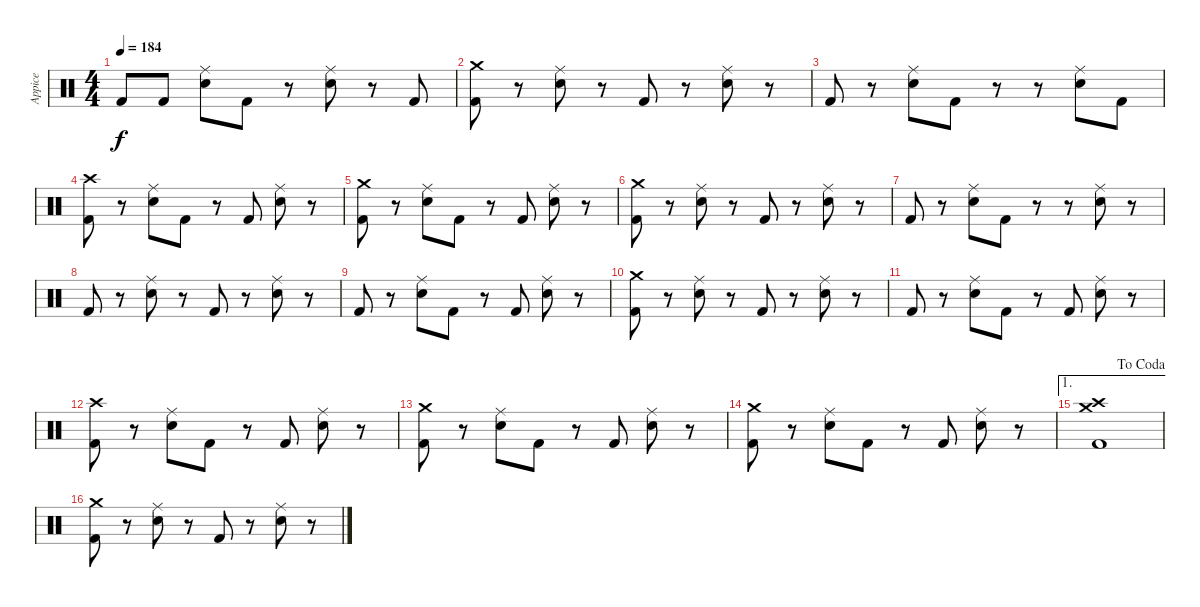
\track ("Appice" "Appice") {instrument percussion}
\staff {score}
\articulation defaults
\ts (4 4)
\tempo 184
\clef neutral
\ks c "Kick (hit) 2".8{dy f} "Kick (hit) 2".8
("Ride (middle)" "Snare (hit) 2").8 "Kick (hit) 2".8 r.8 ("Ride (middle)" "Snare (hit) 2").8 r.8 "Kick (hit) 2".8 |
("Crash medium (hit)" "Kick (hit) 2").8 r.8 ("Ride (middle)" "Snare (hit) 2").8 r.8 "Kick (hit) 2".8 r.8 ("Ride (middle)" "Snare (hit) 2").8 r.8 |
"Kick (hit) 2".8 r.8 ("Ride (middle)" "Snare (hit) 2").8 "Kick (hit) 2".8 r.8 r.8 ("Ride (middle)" "Snare (hit) 2").8 "Kick (hit) 2".8 |
("Crash high (hit)" "Kick (hit) 2").8 r.8 ("Ride (middle)" "Snare (hit) 2").8 "Kick (hit) 2".8 r.8 "Kick (hit) 2".8 ("Ride (middle)" "Snare (hit) 2").8 r.8 |
("Crash medium (hit)" "Kick (hit) 2").8 r.8 ("Ride (middle)" "Snare (hit) 2").8 "Kick (hit) 2".8 r.8 "Kick (hit) 2".8 ("Ride (middle)" "Snare (hit) 2").8 r.8 |
("Crash medium (hit)" "Kick (hit) 2").8 r.8 ("Ride (middle)" "Snare (hit) 2").8 r.8 "Kick (hit) 2".8 r.8 ("Ride (middle)" "Snare (hit) 2").8 r.8 |
"Kick (hit) 2".8 r.8 ("Ride (middle)" "Snare (hit) 2").8 "Kick (hit) 2".8 r.8 r.8 ("Ride (middle)" "Snare (hit) 2").8 r.8 |
"Kick (hit) 2".8 r.8 ("Ride (middle)" "Snare (hit) 2").8 r.8 "Kick (hit) 2".8 r.8 ("Ride (middle)" "Snare (hit) 2").8 r.8 |
"Kick (hit) 2".8 r.8 ("Ride (middle)" "Snare (hit) 2").8 "Kick (hit) 2".8 r.8 "Kick (hit) 2".8 ("Ride (middle)" "Snare (hit) 2").8 r.8 |
("Crash medium (hit)" "Kick (hit) 2").8 r.8 ("Ride (middle)" "Snare (hit) 2").8 r.8 "Kick (hit) 2".8 r.8 ("Ride (middle)" "Snare (hit) 2").8 r.8 |
"Kick (hit) 2".8 r.8 ("Ride (middle)" "Snare (hit) 2").8 "Kick (hit) 2".8 r.8 "Kick (hit) 2".8 ("Ride (middle)" "Snare (hit) 2").8 r.8 |
("Crash high (hit)" "Kick (hit) 2").8 r.8 ("Ride (middle)" "Snare (hit) 2").8 "Kick (hit) 2".8 r.8 "Kick (hit) 2".8 ("Ride (middle)" "Snare (hit) 2").8 r.8 |
("Crash medium (hit)" "Kick (hit) 2").8 r.8 ("Ride (middle)" "Snare (hit) 2").8 "Kick (hit) 2".8 r.8 "Kick (hit) 2".8 ("Ride (middle)" "Snare (hit) 2").8 r.8 |
("Crash medium (hit)" "Kick (hit) 2").8 r.8 ("Ride (middle)" "Snare (hit) 2").8 "Kick (hit) 2".8 r.8 "Kick (hit) 2".8 ("Ride (middle)" "Snare (hit) 2").8 r.8 |
\ae 1
\jump dacoda
("Crash high (hit)" "Crash medium (hit)" "Kick (hit) 2").1 |
("Crash medium (hit)" "Kick (hit) 2").8 r.8 ("Ride (middle)" "Snare (hit) 2").8 r.8 "Kick (hit) 2".8 r.8 ("Ride (middle)" "Snare (hit) 2").8 r.8
